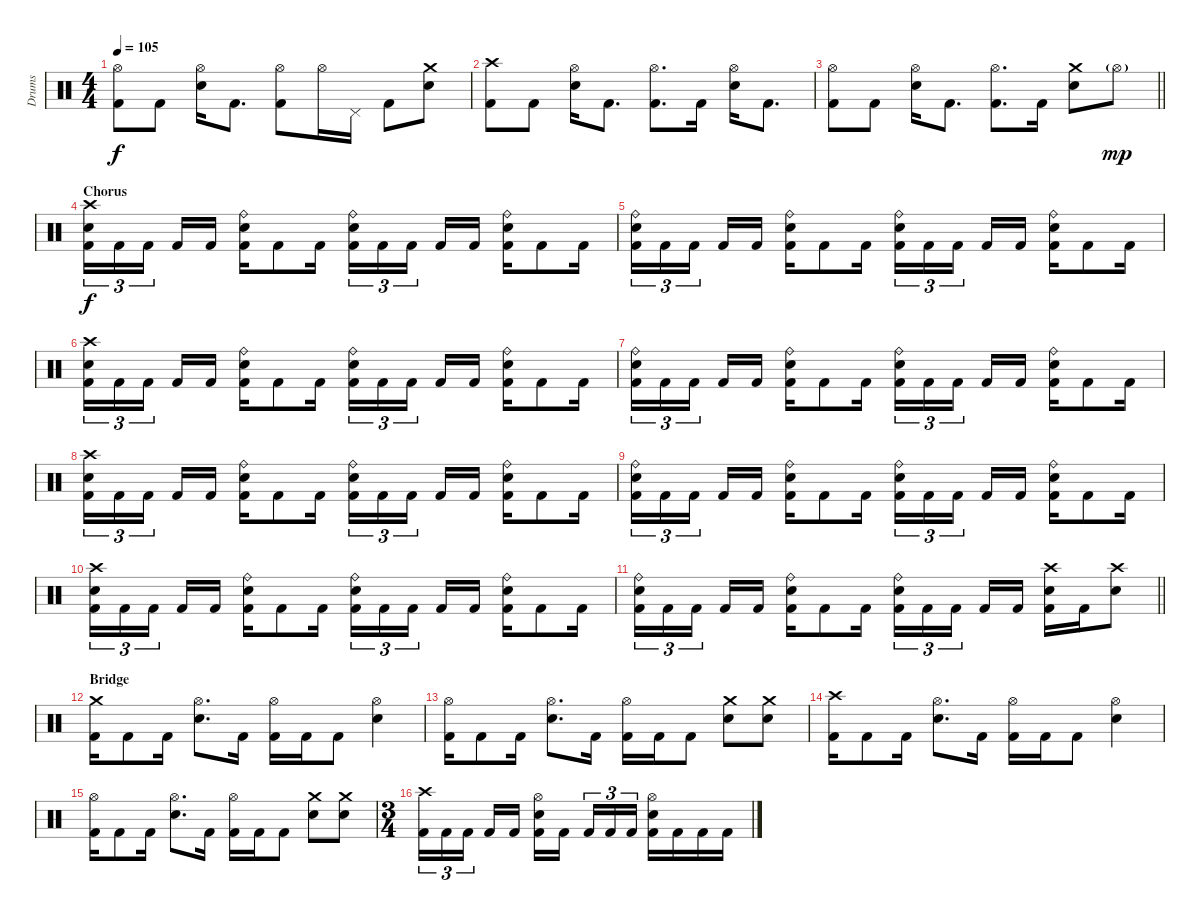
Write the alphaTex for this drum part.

\track ("Drums" "Drums") {instrument percussion}
\staff {score}
\articulation defaults
\ts (4 4)
\tempo 105
\clef neutral
\ks c
("Hi-Hat (open)" "Kick (hit) 2").8{dy f} "Kick (hit) 2".8 ("Hi-Hat (open)" "Electric Snare (hit)").16 "Kick (hit) 2".8{d} ("Hi-Hat (open)" "Kick (hit) 2").8 "Hi-Hat (open)".16 "Pedal Hi-Hat (hit)".16 "Kick (hit) 2".8 ("Crash medium (hit)" "Electric Snare (hit)").8 |
("Crash high (hit)" "Kick (hit) 2").8 "Kick (hit) 2".8 ("Hi-Hat (open)" "Electric Snare (hit)").16 "Kick (hit) 2".8{d} ("Hi-Hat (open)" "Kick (hit) 2").8{d} "Kick (hit) 2".16 ("Hi-Hat (open)" "Electric Snare (hit)").16 "Kick (hit) 2".8{d} |
\barLineRight lightlight
("Hi-Hat (open)" "Kick (hit) 2").8 "Kick (hit) 2".8 ("Hi-Hat (open)" "Electric Snare (hit)").16 "Kick (hit) 2".8{d} ("Hi-Hat (open)" "Kick (hit) 2").8{d} "Kick (hit) 2".16 ("Crash medium (hit)" "Electric Snare (hit)").8 "Hi-Hat (open)"{g}.8{dy mp} |
\section ("" "Chorus")
("Crash high (hit)" "Electric Snare (hit)" "Kick (hit) 2").16{tu (3 2) dy f} "Kick (hit) 2".16{tu (3 2)} "Kick (hit) 2".16{tu (3 2) beam splitsecondary} "Kick (hit) 2".16 "Kick (hit) 2".16 ("Ride (bell)" "Electric Snare (hit)" "Kick (hit) 2").16 "Kick (hit) 2".8 "Kick (hit) 2".16 ("Ride (bell)" "Electric Snare (hit)" "Kick (hit) 2").16{tu (3 2)} "Kick (hit) 2".16{tu (3 2)} "Kick (hit) 2".16{tu (3 2) beam splitsecondary} "Kick (hit) 2".16 "Kick (hit) 2".16 ("Ride (bell)" "Electric Snare (hit)" "Kick (hit) 2").16 "Kick (hit) 2".8 "Kick (hit) 2".16 |
("Ride (bell)" "Electric Snare (hit)" "Kick (hit) 2").16{tu (3 2)} "Kick (hit) 2".16{tu (3 2)} "Kick (hit) 2".16{tu (3 2) beam splitsecondary} "Kick (hit) 2".16 "Kick (hit) 2".16 ("Ride (bell)" "Electric Snare (hit)" "Kick (hit) 2").16 "Kick (hit) 2".8 "Kick (hit) 2".16 ("Ride (bell)" "Electric Snare (hit)" "Kick (hit) 2").16{tu (3 2)} "Kick (hit) 2".16{tu (3 2)} "Kick (hit) 2".16{tu (3 2) beam splitsecondary} "Kick (hit) 2".16 "Kick (hit) 2".16 ("Ride (bell)" "Electric Snare (hit)" "Kick (hit) 2").16 "Kick (hit) 2".8 "Kick (hit) 2".16 |
("Crash high (hit)" "Electric Snare (hit)" "Kick (hit) 2").16{tu (3 2)} "Kick (hit) 2".16{tu (3 2)} "Kick (hit) 2".16{tu (3 2) beam splitsecondary} "Kick (hit) 2".16 "Kick (hit) 2".16 ("Ride (bell)" "Electric Snare (hit)" "Kick (hit) 2").16 "Kick (hit) 2".8 "Kick (hit) 2".16 ("Ride (bell)" "Electric Snare (hit)" "Kick (hit) 2").16{tu (3 2)} "Kick (hit) 2".16{tu (3 2)} "Kick (hit) 2".16{tu (3 2) beam splitsecondary} "Kick (hit) 2".16 "Kick (hit) 2".16 ("Ride (bell)" "Electric Snare (hit)" "Kick (hit) 2").16 "Kick (hit) 2".8 "Kick (hit) 2".16 |
("Ride (bell)" "Electric Snare (hit)" "Kick (hit) 2").16{tu (3 2)} "Kick (hit) 2".16{tu (3 2)} "Kick (hit) 2".16{tu (3 2) beam splitsecondary} "Kick (hit) 2".16 "Kick (hit) 2".16 ("Ride (bell)" "Electric Snare (hit)" "Kick (hit) 2").16 "Kick (hit) 2".8 "Kick (hit) 2".16 ("Ride (bell)" "Electric Snare (hit)" "Kick (hit) 2").16{tu (3 2)} "Kick (hit) 2".16{tu (3 2)} "Kick (hit) 2".16{tu (3 2) beam splitsecondary} "Kick (hit) 2".16 "Kick (hit) 2".16 ("Ride (bell)" "Electric Snare (hit)" "Kick (hit) 2").16 "Kick (hit) 2".8 "Kick (hit) 2".16 |
("Crash high (hit)" "Electric Snare (hit)" "Kick (hit) 2").16{tu (3 2)} "Kick (hit) 2".16{tu (3 2)} "Kick (hit) 2".16{tu (3 2) beam splitsecondary} "Kick (hit) 2".16 "Kick (hit) 2".16 ("Ride (bell)" "Electric Snare (hit)" "Kick (hit) 2").16 "Kick (hit) 2".8 "Kick (hit) 2".16 ("Ride (bell)" "Electric Snare (hit)" "Kick (hit) 2").16{tu (3 2)} "Kick (hit) 2".16{tu (3 2)} "Kick (hit) 2".16{tu (3 2) beam splitsecondary} "Kick (hit) 2".16 "Kick (hit) 2".16 ("Ride (bell)" "Electric Snare (hit)" "Kick (hit) 2").16 "Kick (hit) 2".8 "Kick (hit) 2".16 |
("Ride (bell)" "Electric Snare (hit)" "Kick (hit) 2").16{tu (3 2)} "Kick (hit) 2".16{tu (3 2)} "Kick (hit) 2".16{tu (3 2) beam splitsecondary} "Kick (hit) 2".16 "Kick (hit) 2".16 ("Ride (bell)" "Electric Snare (hit)" "Kick (hit) 2").16 "Kick (hit) 2".8 "Kick (hit) 2".16 ("Ride (bell)" "Electric Snare (hit)" "Kick (hit) 2").16{tu (3 2)} "Kick (hit) 2".16{tu (3 2)} "Kick (hit) 2".16{tu (3 2) beam splitsecondary} "Kick (hit) 2".16 "Kick (hit) 2".16 ("Ride (bell)" "Electric Snare (hit)" "Kick (hit) 2").16 "Kick (hit) 2".8 "Kick (hit) 2".16 |
("Crash high (hit)" "Electric Snare (hit)" "Kick (hit) 2").16{tu (3 2)} "Kick (hit) 2".16{tu (3 2)} "Kick (hit) 2".16{tu (3 2) beam splitsecondary} "Kick (hit) 2".16 "Kick (hit) 2".16 ("Ride (bell)" "Electric Snare (hit)" "Kick (hit) 2").16 "Kick (hit) 2".8 "Kick (hit) 2".16 ("Ride (bell)" "Electric Snare (hit)" "Kick (hit) 2").16{tu (3 2)} "Kick (hit) 2".16{tu (3 2)} "Kick (hit) 2".16{tu (3 2) beam splitsecondary} "Kick (hit) 2".16 "Kick (hit) 2".16 ("Ride (bell)" "Electric Snare (hit)" "Kick (hit) 2").16 "Kick (hit) 2".8 "Kick (hit) 2".16 |
\barLineRight lightlight
("Ride (bell)" "Electric Snare (hit)" "Kick (hit) 2").16{tu (3 2)} "Kick (hit) 2".16{tu (3 2)} "Kick (hit) 2".16{tu (3 2) beam splitsecondary} "Kick (hit) 2".16 "Kick (hit) 2".16 ("Ride (bell)" "Electric Snare (hit)" "Kick (hit) 2").16 "Kick (hit) 2".8 "Kick (hit) 2".16 ("Ride (bell)" "Electric Snare (hit)" "Kick (hit) 2").16{tu (3 2)} "Kick (hit) 2".16{tu (3 2)} "Kick (hit) 2".16{tu (3 2) beam splitsecondary} "Kick (hit) 2".16 "Kick (hit) 2".16 ("Crash high (hit)" "Electric Snare (hit)" "Kick (hit) 2").16 "Kick (hit) 2".16 ("Crash high (hit)" "Electric Snare (hit)").8 |
\section ("" "Bridge")
("Crash medium (hit)" "Kick (hit) 2").16 "Kick (hit) 2".8 "Kick (hit) 2".16 ("Hi-Hat (open)" "Electric Snare (hit)").8{d} "Kick (hit) 2".16 ("Hi-Hat (open)" "Kick (hit) 2").16 "Kick (hit) 2".16 "Kick (hit) 2".8 ("Hi-Hat (open)" "Electric Snare (hit)").4 |
("Hi-Hat (open)" "Kick (hit) 2").16 "Kick (hit) 2".8 "Kick (hit) 2".16 ("Hi-Hat (open)" "Electric Snare (hit)").8{d} "Kick (hit) 2".16 ("Hi-Hat (open)" "Kick (hit) 2").16 "Kick (hit) 2".16 "Kick (hit) 2".8 ("Crash medium (hit)" "Electric Snare (hit)").8 ("Crash medium (hit)" "Electric Snare (hit)").8 |
("Crash high (hit)" "Kick (hit) 2").16 "Kick (hit) 2".8 "Kick (hit) 2".16 ("Hi-Hat (open)" "Electric Snare (hit)").8{d} "Kick (hit) 2".16 ("Hi-Hat (open)" "Kick (hit) 2").16 "Kick (hit) 2".16 "Kick (hit) 2".8 ("Hi-Hat (open)" "Electric Snare (hit)").4 |
("Hi-Hat (open)" "Kick (hit) 2").16 "Kick (hit) 2".8 "Kick (hit) 2".16 ("Hi-Hat (open)" "Electric Snare (hit)").8{d} "Kick (hit) 2".16 ("Hi-Hat (open)" "Kick (hit) 2").16 "Kick (hit) 2".16 "Kick (hit) 2".8 ("Crash medium (hit)" "Electric Snare (hit)").8 ("Crash medium (hit)" "Electric Snare (hit)").8 |
\ts (3 4)
("Crash high (hit)" "Kick (hit) 2").16{tu (3 2)} "Kick (hit) 2".16{tu (3 2)} "Kick (hit) 2".16{tu (3 2) beam splitsecondary} "Kick (hit) 2".16 "Kick (hit) 2".16 ("Hi-Hat (open)" "Electric Snare (hit)" "Kick (hit) 2").16 "Kick (hit) 2".16{beam splitsecondary} "Kick (hit) 2".16{tu (3 2)} "Kick (hit) 2".16{tu (3 2)} "Kick (hit) 2".16{tu (3 2)} ("Hi-Hat (open)" "Electric Snare (hit)" "Kick (hit) 2").16 "Kick (hit) 2".16 "Kick (hit) 2".16 "Kick (hit) 2".16
